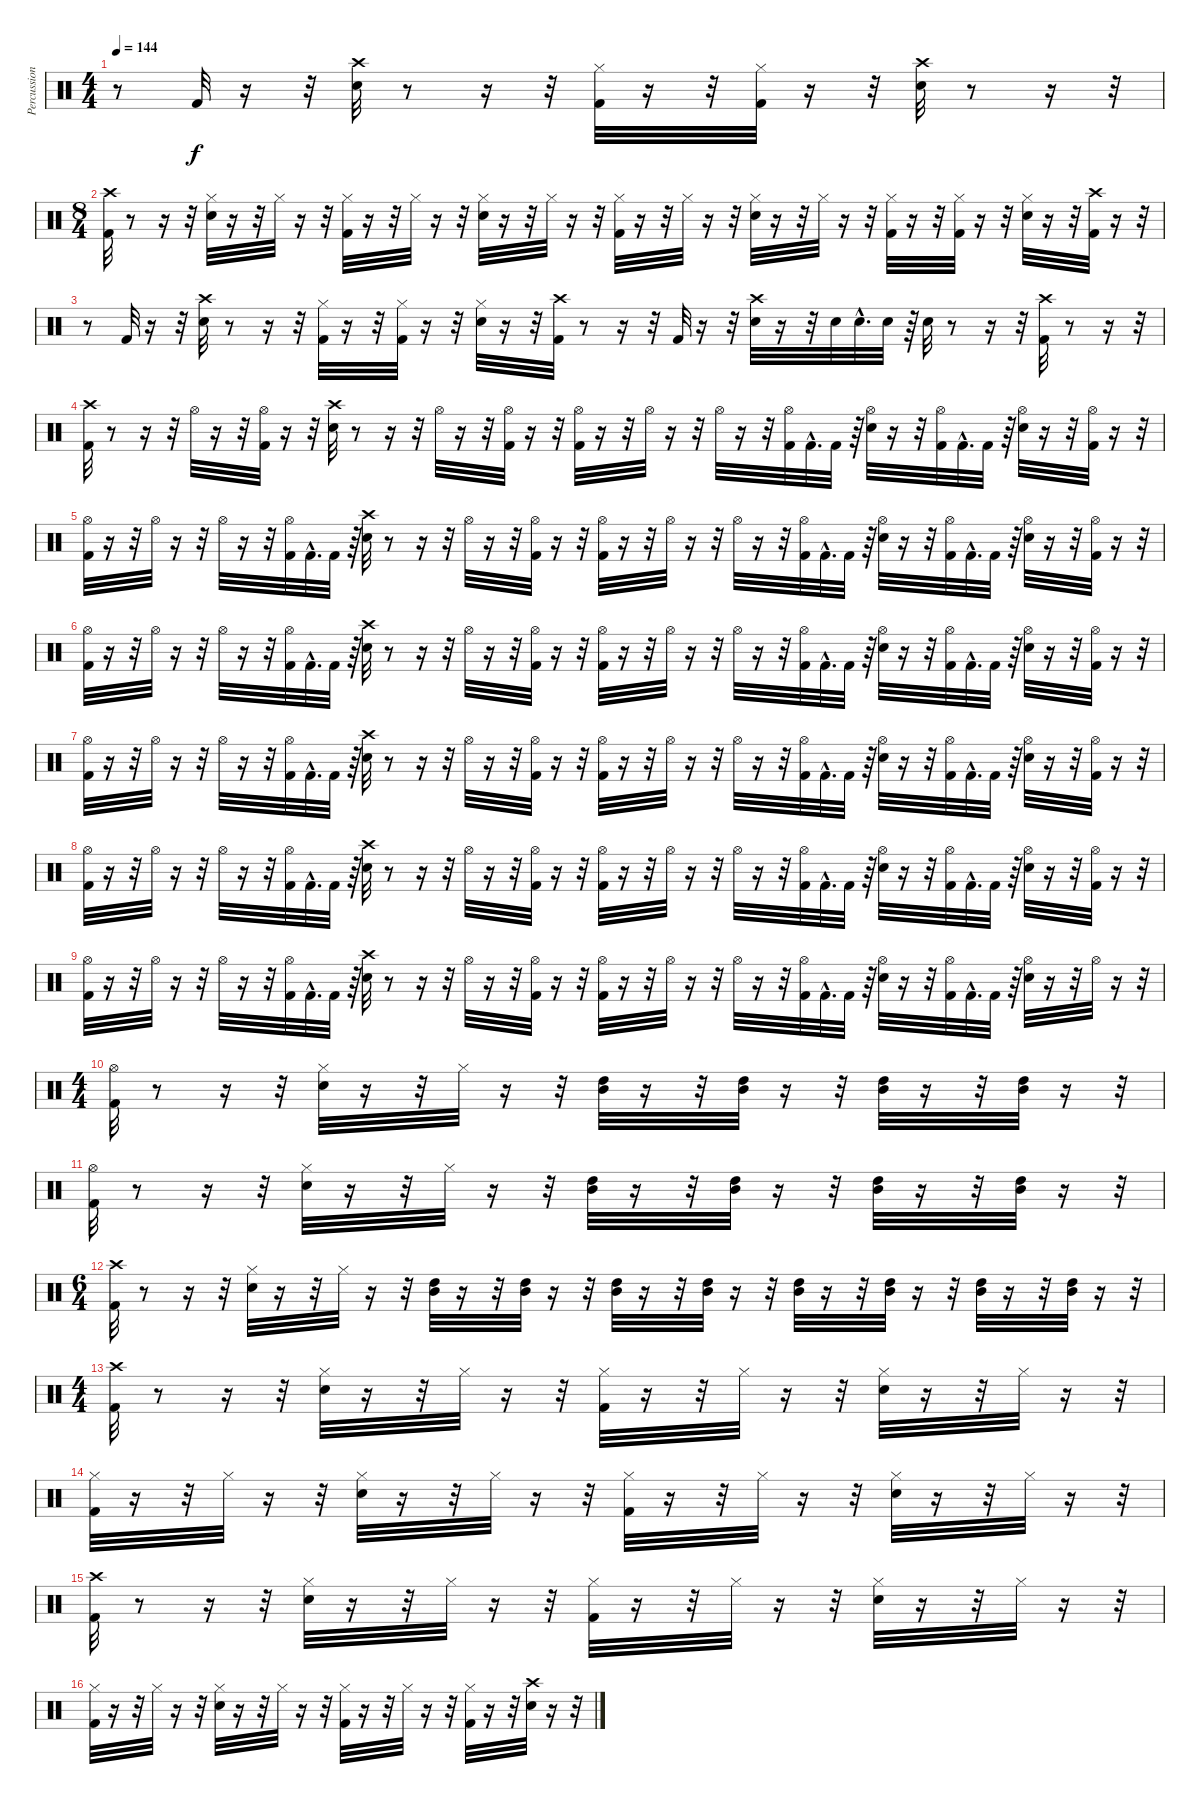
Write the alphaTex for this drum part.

\track ("Percussion" "Percussion") {instrument percussion}
\staff {score}
\articulation defaults
\ts (4 4)
\tempo 144
\clef neutral
\ks c
r.8{dy f} "Kick (hit) 2".32 r.16 r.32 ("Crash high (hit)" "Snare (hit) 2").32 r.8 r.16 r.32 ("Kick (hit) 2" "Hi-Hat (closed)").32 r.16 r.32 ("Kick (hit) 2" "Hi-Hat (closed)").32 r.16 r.32 ("Crash high (hit)" "Snare (hit) 2").32 r.8 r.16 r.32 |
\ts (8 4)
("Kick (hit) 2" "Crash high (hit)").32 r.8 r.16 r.32 ("Snare (hit) 2" "Hi-Hat (closed)").32 r.16 r.32 "Hi-Hat (closed)".32 r.16 r.32 ("Kick (hit) 2" "Hi-Hat (closed)").32 r.16 r.32 "Hi-Hat (closed)".32 r.16 r.32 ("Snare (hit) 2" "Hi-Hat (closed)").32 r.16 r.32 "Hi-Hat (closed)".32 r.16 r.32 ("Kick (hit) 2" "Hi-Hat (closed)").32 r.16 r.32 "Hi-Hat (closed)".32 r.16 r.32 ("Snare (hit) 2" "Hi-Hat (closed)").32 r.16 r.32 "Hi-Hat (closed)".32 r.16 r.32 ("Kick (hit) 2" "Hi-Hat (closed)").32 r.16 r.32 ("Kick (hit) 2" "Hi-Hat (closed)").32 r.16 r.32 ("Snare (hit) 2" "Hi-Hat (closed)").32 r.16 r.32 ("Kick (hit) 2" "Crash high (hit)").32 r.16 r.32 |
r.8 "Kick (hit) 2".32 r.16 r.32 ("Crash high (hit)" "Snare (hit) 2").32 r.8 r.16 r.32 ("Kick (hit) 2" "Hi-Hat (closed)").32 r.16 r.32 ("Kick (hit) 2" "Hi-Hat (closed)").32 r.16 r.32 ("Snare (hit) 2" "Hi-Hat (closed)").32 r.16 r.32 ("Kick (hit) 2" "Crash high (hit)").32 r.8 r.16 r.32 "Kick (hit) 2".32 r.16 r.32 ("Crash high (hit)" "Snare (hit) 2").32 r.16 r.32 "Snare (hit) 2".32 "Snare (hit) 2"{hac}.32{d} "Snare (hit) 2".32 r.64 "Snare (hit) 2".32 r.8 r.16 r.32 ("Crash high (hit)" "Kick (hit) 2").32 r.8 r.16 r.32 |
("Kick (hit) 2" "Crash high (hit)").32 r.8 r.16 r.32 "Hi-Hat (open)".32 r.16 r.32 ("Kick (hit) 2" "Hi-Hat (open)").32 r.16 r.32 ("Snare (hit) 2" "Crash high (hit)").32 r.8 r.16 r.32 "Hi-Hat (open)".32 r.16 r.32 ("Hi-Hat (open)" "Kick (hit) 2").32 r.16 r.32 ("Kick (hit) 2" "Hi-Hat (open)").32 r.16 r.32 "Hi-Hat (open)".32 r.16 r.32 "Hi-Hat (open)".32 r.16 r.32 ("Kick (hit) 2" "Hi-Hat (open)").32 "Kick (hit) 2"{hac}.32{d} "Kick (hit) 2".32 r.64 ("Snare (hit) 2" "Hi-Hat (open)").32 r.16 r.32 ("Kick (hit) 2" "Hi-Hat (open)").32 "Kick (hit) 2"{hac}.32{d} "Kick (hit) 2".32 r.64 ("Snare (hit) 2" "Hi-Hat (open)").32 r.16 r.32 ("Kick (hit) 2" "Hi-Hat (open)").32 r.16 r.32 |
("Kick (hit) 2" "Hi-Hat (open)").32 r.16 r.32 "Hi-Hat (open)".32 r.16 r.32 "Hi-Hat (open)".32 r.16 r.32 ("Kick (hit) 2" "Hi-Hat (open)").32 "Kick (hit) 2"{hac}.32{d} "Kick (hit) 2".32 r.64 ("Snare (hit) 2" "Crash high (hit)").32 r.8 r.16 r.32 "Hi-Hat (open)".32 r.16 r.32 ("Kick (hit) 2" "Hi-Hat (open)").32 r.16 r.32 ("Kick (hit) 2" "Hi-Hat (open)").32 r.16 r.32 "Hi-Hat (open)".32 r.16 r.32 "Hi-Hat (open)".32 r.16 r.32 ("Kick (hit) 2" "Hi-Hat (open)").32 "Kick (hit) 2"{hac}.32{d} "Kick (hit) 2".32 r.64 ("Snare (hit) 2" "Hi-Hat (open)").32 r.16 r.32 ("Kick (hit) 2" "Hi-Hat (open)").32 "Kick (hit) 2"{hac}.32{d} "Kick (hit) 2".32 r.64 ("Snare (hit) 2" "Hi-Hat (open)").32 r.16 r.32 ("Kick (hit) 2" "Hi-Hat (open)").32 r.16 r.32 |
("Kick (hit) 2" "Hi-Hat (open)").32 r.16 r.32 "Hi-Hat (open)".32 r.16 r.32 "Hi-Hat (open)".32 r.16 r.32 ("Kick (hit) 2" "Hi-Hat (open)").32 "Kick (hit) 2"{hac}.32{d} "Kick (hit) 2".32 r.64 ("Snare (hit) 2" "Crash high (hit)").32 r.8 r.16 r.32 "Hi-Hat (open)".32 r.16 r.32 ("Kick (hit) 2" "Hi-Hat (open)").32 r.16 r.32 ("Kick (hit) 2" "Hi-Hat (open)").32 r.16 r.32 "Hi-Hat (open)".32 r.16 r.32 "Hi-Hat (open)".32 r.16 r.32 ("Kick (hit) 2" "Hi-Hat (open)").32 "Kick (hit) 2"{hac}.32{d} "Kick (hit) 2".32 r.64 ("Snare (hit) 2" "Hi-Hat (open)").32 r.16 r.32 ("Kick (hit) 2" "Hi-Hat (open)").32 "Kick (hit) 2"{hac}.32{d} "Kick (hit) 2".32 r.64 ("Snare (hit) 2" "Hi-Hat (open)").32 r.16 r.32 ("Kick (hit) 2" "Hi-Hat (open)").32 r.16 r.32 |
("Kick (hit) 2" "Hi-Hat (open)").32 r.16 r.32 "Hi-Hat (open)".32 r.16 r.32 "Hi-Hat (open)".32 r.16 r.32 ("Kick (hit) 2" "Hi-Hat (open)").32 "Kick (hit) 2"{hac}.32{d} "Kick (hit) 2".32 r.64 ("Snare (hit) 2" "Crash high (hit)").32 r.8 r.16 r.32 "Hi-Hat (open)".32 r.16 r.32 ("Kick (hit) 2" "Hi-Hat (open)").32 r.16 r.32 ("Kick (hit) 2" "Hi-Hat (open)").32 r.16 r.32 "Hi-Hat (open)".32 r.16 r.32 "Hi-Hat (open)".32 r.16 r.32 ("Kick (hit) 2" "Hi-Hat (open)").32 "Kick (hit) 2"{hac}.32{d} "Kick (hit) 2".32 r.64 ("Snare (hit) 2" "Hi-Hat (open)").32 r.16 r.32 ("Kick (hit) 2" "Hi-Hat (open)").32 "Kick (hit) 2"{hac}.32{d} "Kick (hit) 2".32 r.64 ("Snare (hit) 2" "Hi-Hat (open)").32 r.16 r.32 ("Kick (hit) 2" "Hi-Hat (open)").32 r.16 r.32 |
("Kick (hit) 2" "Hi-Hat (open)").32 r.16 r.32 "Hi-Hat (open)".32 r.16 r.32 "Hi-Hat (open)".32 r.16 r.32 ("Kick (hit) 2" "Hi-Hat (open)").32 "Kick (hit) 2"{hac}.32{d} "Kick (hit) 2".32 r.64 ("Snare (hit) 2" "Crash high (hit)").32 r.8 r.16 r.32 "Hi-Hat (open)".32 r.16 r.32 ("Kick (hit) 2" "Hi-Hat (open)").32 r.16 r.32 ("Kick (hit) 2" "Hi-Hat (open)").32 r.16 r.32 "Hi-Hat (open)".32 r.16 r.32 "Hi-Hat (open)".32 r.16 r.32 ("Kick (hit) 2" "Hi-Hat (open)").32 "Kick (hit) 2"{hac}.32{d} "Kick (hit) 2".32 r.64 ("Snare (hit) 2" "Hi-Hat (open)").32 r.16 r.32 ("Kick (hit) 2" "Hi-Hat (open)").32 "Kick (hit) 2"{hac}.32{d} "Kick (hit) 2".32 r.64 ("Snare (hit) 2" "Hi-Hat (open)").32 r.16 r.32 ("Kick (hit) 2" "Hi-Hat (open)").32 r.16 r.32 |
("Kick (hit) 2" "Hi-Hat (open)").32 r.16 r.32 "Hi-Hat (open)".32 r.16 r.32 "Hi-Hat (open)".32 r.16 r.32 ("Kick (hit) 2" "Hi-Hat (open)").32 "Kick (hit) 2"{hac}.32{d} "Kick (hit) 2".32 r.64 ("Snare (hit) 2" "Crash high (hit)").32 r.8 r.16 r.32 "Hi-Hat (open)".32 r.16 r.32 ("Kick (hit) 2" "Hi-Hat (open)").32 r.16 r.32 ("Kick (hit) 2" "Hi-Hat (open)").32 r.16 r.32 "Hi-Hat (open)".32 r.16 r.32 "Hi-Hat (open)".32 r.16 r.32 ("Kick (hit) 2" "Hi-Hat (open)").32 "Kick (hit) 2"{hac}.32{d} "Kick (hit) 2".32 r.64 ("Snare (hit) 2" "Hi-Hat (open)").32 r.16 r.32 ("Kick (hit) 2" "Hi-Hat (open)").32 "Kick (hit) 2"{hac}.32{d} "Kick (hit) 2".32 r.64 ("Snare (hit) 2" "Hi-Hat (open)").32 r.16 r.32 "Hi-Hat (open)".32 r.16 r.32 |
\ts (4 4)
("Kick (hit) 2" "Hi-Hat (open)").32 r.8 r.16 r.32 ("Snare (hit) 2" "Hi-Hat (closed)").32 r.16 r.32 "Hi-Hat (closed)".32 r.16 r.32 ("High Tom (hit)" "Mid Tom (hit)").32 r.16 r.32 ("High Tom (hit)" "Mid Tom (hit)").32 r.16 r.32 ("High Tom (hit)" "Mid Tom (hit)").32 r.16 r.32 ("High Tom (hit)" "Mid Tom (hit)").32 r.16 r.32 |
("Kick (hit) 2" "Hi-Hat (open)").32 r.8 r.16 r.32 ("Hi-Hat (closed)" "Snare (hit) 2").32 r.16 r.32 "Hi-Hat (closed)".32 r.16 r.32 ("Mid Tom (hit)" "High Tom (hit)").32 r.16 r.32 ("Mid Tom (hit)" "High Tom (hit)").32 r.16 r.32 ("Mid Tom (hit)" "High Tom (hit)").32 r.16 r.32 ("Mid Tom (hit)" "High Tom (hit)").32 r.16 r.32 |
\ts (6 4)
("Kick (hit) 2" "Crash high (hit)").32 r.8 r.16 r.32 ("Hi-Hat (closed)" "Snare (hit) 2").32 r.16 r.32 "Hi-Hat (closed)".32 r.16 r.32 ("High Tom (hit)" "Mid Tom (hit)").32 r.16 r.32 ("Mid Tom (hit)" "High Tom (hit)").32 r.16 r.32 ("Mid Tom (hit)" "High Tom (hit)").32 r.16 r.32 ("Mid Tom (hit)" "High Tom (hit)").32 r.16 r.32 ("Mid Tom (hit)" "High Tom (hit)").32 r.16 r.32 ("Mid Tom (hit)" "High Tom (hit)").32 r.16 r.32 ("Mid Tom (hit)" "High Tom (hit)").32 r.16 r.32 ("Mid Tom (hit)" "High Tom (hit)").32 r.16 r.32 |
\ts (4 4)
("Kick (hit) 2" "Crash high (hit)").32 r.8 r.16 r.32 ("Hi-Hat (closed)" "Snare (hit) 2").32 r.16 r.32 "Hi-Hat (closed)".32 r.16 r.32 ("Hi-Hat (closed)" "Kick (hit) 2").32 r.16 r.32 "Hi-Hat (closed)".32 r.16 r.32 ("Snare (hit) 2" "Hi-Hat (closed)").32 r.16 r.32 "Hi-Hat (closed)".32 r.16 r.32 |
("Hi-Hat (closed)" "Kick (hit) 2").32 r.16 r.32 "Hi-Hat (closed)".32 r.16 r.32 ("Hi-Hat (closed)" "Snare (hit) 2").32 r.16 r.32 "Hi-Hat (closed)".32 r.16 r.32 ("Hi-Hat (closed)" "Kick (hit) 2").32 r.16 r.32 "Hi-Hat (closed)".32 r.16 r.32 ("Hi-Hat (closed)" "Snare (hit) 2").32 r.16 r.32 "Hi-Hat (closed)".32 r.16 r.32 |
("Kick (hit) 2" "Crash high (hit)").32 r.8 r.16 r.32 ("Hi-Hat (closed)" "Snare (hit) 2").32 r.16 r.32 "Hi-Hat (closed)".32 r.16 r.32 ("Hi-Hat (closed)" "Kick (hit) 2").32 r.16 r.32 "Hi-Hat (closed)".32 r.16 r.32 ("Snare (hit) 2" "Hi-Hat (closed)").32 r.16 r.32 "Hi-Hat (closed)".32 r.16 r.32 |
("Hi-Hat (closed)" "Kick (hit) 2").32 r.16 r.32 "Hi-Hat (closed)".32 r.16 r.32 ("Hi-Hat (closed)" "Snare (hit) 2").32 r.16 r.32 "Hi-Hat (closed)".32 r.16 r.32 ("Hi-Hat (closed)" "Kick (hit) 2").32 r.16 r.32 "Hi-Hat (closed)".32 r.16 r.32 ("Kick (hit) 2" "Hi-Hat (closed)").32 r.16 r.32 ("Crash high (hit)" "Snare (hit) 2").32 r.16 r.32
